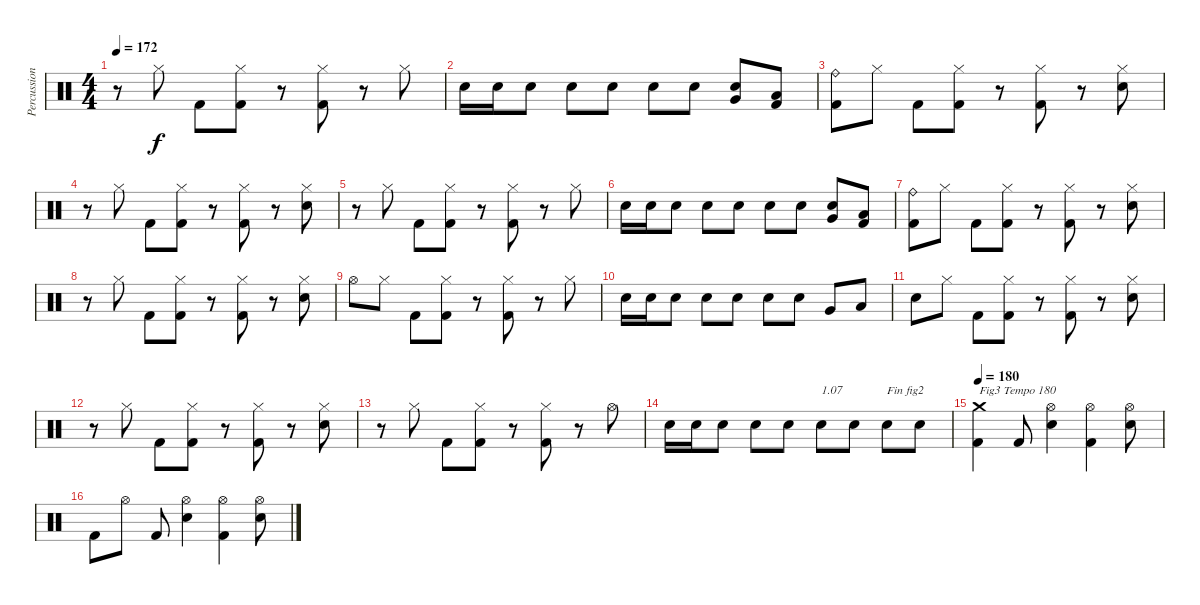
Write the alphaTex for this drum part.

\track ("Percussions" "Percussion") {instrument percussion}
\staff {score}
\articulation defaults
\ts (4 4)
\tempo 172
\clef neutral
\ks c
r.8{dy f} "Hi-Hat (closed)".8 "Kick (hit) 2".8 ("Kick (hit) 2" "Hi-Hat (closed)").8 r.8 ("Kick (hit) 2" "Hi-Hat (closed)").8 r.8 "Hi-Hat (closed)".8 |
"Electric Snare (hit)".16 "Electric Snare (hit)".16 "Electric Snare (hit)".8 "Electric Snare (hit)".8 "Electric Snare (hit)".8 "Electric Snare (hit)".8 "Electric Snare (hit)".8 ("Electric Snare (hit)" "Very Low Tom (hit)").8 ("Kick (hit) 2" "Low Floor Tom (hit)").8 |
("Kick (hit) 2" "Ride (bell)").8 "Hi-Hat (closed)".8 "Kick (hit) 2".8 ("Kick (hit) 2" "Hi-Hat (closed)").8 r.8 ("Kick (hit) 2" "Hi-Hat (closed)").8 r.8 ("Electric Snare (hit)" "Hi-Hat (closed)").8 |
r.8 "Hi-Hat (closed)".8 "Kick (hit) 2".8 ("Kick (hit) 2" "Hi-Hat (closed)").8 r.8 ("Kick (hit) 2" "Hi-Hat (closed)").8 r.8 ("Electric Snare (hit)" "Hi-Hat (closed)").8 |
r.8 "Hi-Hat (closed)".8 "Kick (hit) 2".8 ("Kick (hit) 2" "Hi-Hat (closed)").8 r.8 ("Kick (hit) 2" "Hi-Hat (closed)").8 r.8 "Hi-Hat (closed)".8 |
"Electric Snare (hit)".16 "Electric Snare (hit)".16 "Electric Snare (hit)".8 "Electric Snare (hit)".8 "Electric Snare (hit)".8 "Electric Snare (hit)".8 "Electric Snare (hit)".8 ("Electric Snare (hit)" "Very Low Tom (hit)").8 ("Kick (hit) 2" "Low Floor Tom (hit)").8 |
("Kick (hit) 2" "Ride (bell)").8 "Hi-Hat (closed)".8 "Kick (hit) 2".8 ("Kick (hit) 2" "Hi-Hat (closed)").8 r.8 ("Kick (hit) 2" "Hi-Hat (closed)").8 r.8 ("Electric Snare (hit)" "Hi-Hat (closed)").8 |
r.8 "Hi-Hat (closed)".8 "Kick (hit) 2".8 ("Kick (hit) 2" "Hi-Hat (closed)").8 r.8 ("Kick (hit) 2" "Hi-Hat (closed)").8 r.8 ("Electric Snare (hit)" "Hi-Hat (closed)").8 |
"Hi-Hat (open)".8 "Hi-Hat (closed)".8 "Kick (hit) 2".8 ("Kick (hit) 2" "Hi-Hat (closed)").8 r.8 ("Kick (hit) 2" "Hi-Hat (closed)").8 r.8 "Hi-Hat (closed)".8 |
"Electric Snare (hit)".16 "Electric Snare (hit)".16 "Electric Snare (hit)".8 "Electric Snare (hit)".8 "Electric Snare (hit)".8 "Electric Snare (hit)".8 "Electric Snare (hit)".8 "Very Low Tom (hit)".8 "Low Floor Tom (hit)".8 |
"Electric Snare (hit)".8 "Hi-Hat (closed)".8 "Kick (hit) 2".8 ("Kick (hit) 2" "Hi-Hat (closed)").8 r.8 ("Kick (hit) 2" "Hi-Hat (closed)").8 r.8 ("Electric Snare (hit)" "Hi-Hat (closed)").8 |
r.8 "Hi-Hat (closed)".8 "Kick (hit) 2".8 ("Kick (hit) 2" "Hi-Hat (closed)").8 r.8 ("Kick (hit) 2" "Hi-Hat (closed)").8 r.8 ("Electric Snare (hit)" "Hi-Hat (closed)").8 |
r.8 "Hi-Hat (closed)".8 "Kick (hit) 2".8 ("Kick (hit) 2" "Hi-Hat (closed)").8 r.8 ("Kick (hit) 2" "Hi-Hat (closed)").8 r.8 "Hi-Hat (open)".8 |
"Electric Snare (hit)".16 "Electric Snare (hit)".16 "Electric Snare (hit)".8 "Electric Snare (hit)".8 "Electric Snare (hit)".8 "Electric Snare (hit)".8{txt "1.07"} "Electric Snare (hit)".8 "Electric Snare (hit)".8{txt "Fin fig2"} "Electric Snare (hit)".8 |
\tempo 180
("Kick (hit) 2" "Crash medium (hit)").4{txt "Fig3 Tempo 180"} "Kick (hit) 2".8 ("Electric Snare (hit)" "Hi-Hat (open)").4 ("Kick (hit) 2" "Hi-Hat (open)").4 ("Electric Snare (hit)" "Hi-Hat (open)").8 |
"Kick (hit) 2".8 "Hi-Hat (open)".8 "Kick (hit) 2".8 ("Electric Snare (hit)" "Hi-Hat (open)").4 ("Kick (hit) 2" "Hi-Hat (open)").4 ("Electric Snare (hit)" "Hi-Hat (open)").8
